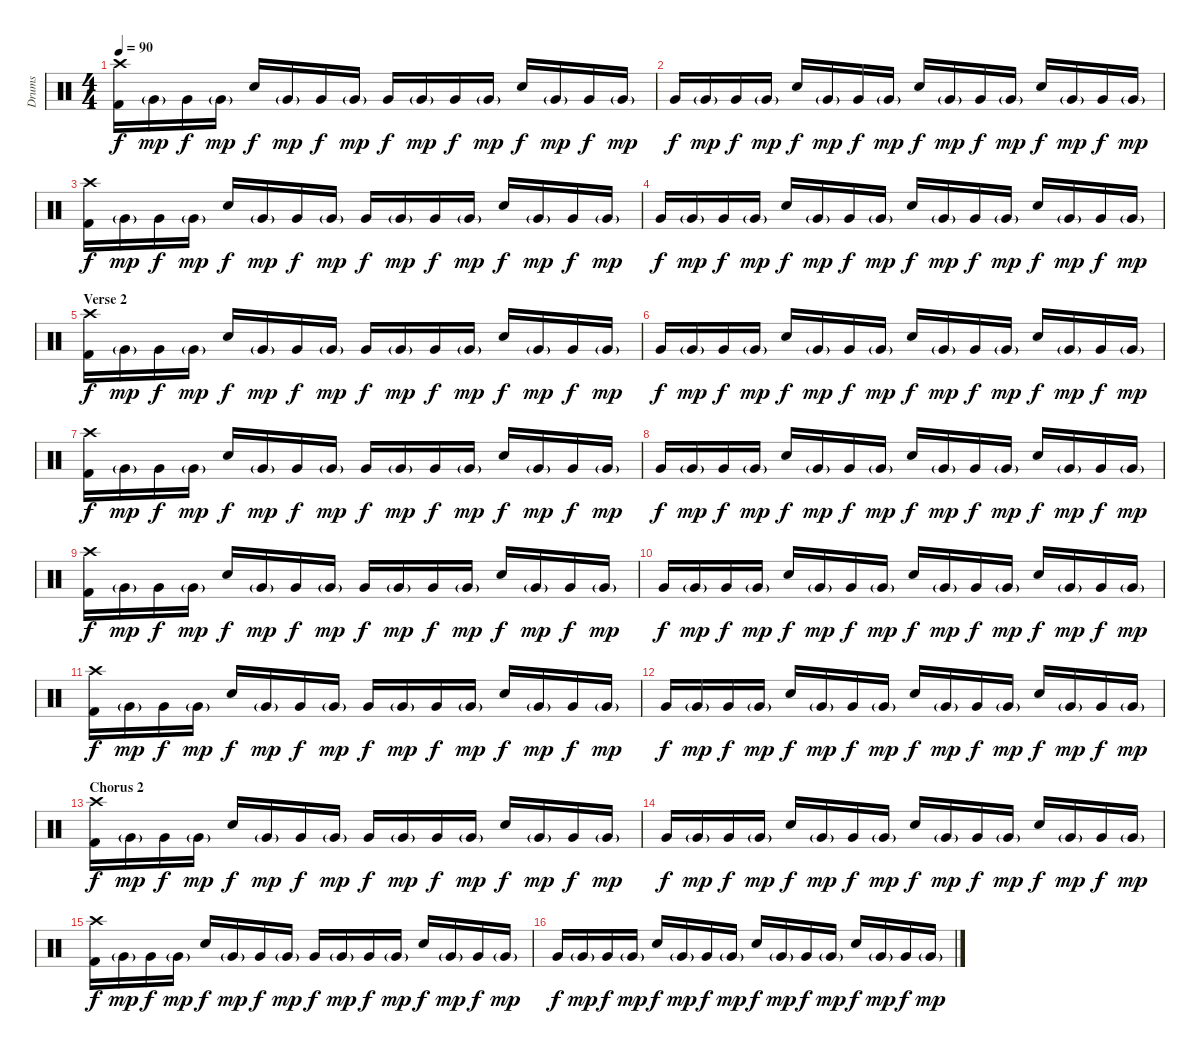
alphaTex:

\track ("Drums" "Drums") {instrument percussion}
\staff {score}
\articulation defaults
\ts (4 4)
\tempo 90
\clef neutral
\ks c
("Crash high (hit)" "Kick (hit) 2").16{dy f} "Very Low Tom (hit)"{g}.16{dy mp} "Very Low Tom (hit)".16{dy f} "Very Low Tom (hit)"{g}.16{dy mp} "Snare (hit) 2".16{dy f} "Very Low Tom (hit)"{g}.16{dy mp} "Very Low Tom (hit)".16{dy f} "Very Low Tom (hit)"{g}.16{dy mp} "Very Low Tom (hit)".16{dy f} "Very Low Tom (hit)"{g}.16{dy mp} "Very Low Tom (hit)".16{dy f} "Very Low Tom (hit)"{g}.16{dy mp} "Snare (hit) 2".16{dy f} "Very Low Tom (hit)"{g}.16{dy mp} "Very Low Tom (hit)".16{dy f} "Very Low Tom (hit)"{g}.16{dy mp} |
"Very Low Tom (hit)".16{dy f} "Very Low Tom (hit)"{g}.16{dy mp} "Very Low Tom (hit)".16{dy f} "Very Low Tom (hit)"{g}.16{dy mp} "Snare (hit) 2".16{dy f} "Very Low Tom (hit)"{g}.16{dy mp} "Very Low Tom (hit)".16{dy f} "Very Low Tom (hit)"{g}.16{dy mp} "Snare (hit) 2".16{dy f} "Very Low Tom (hit)"{g}.16{dy mp} "Very Low Tom (hit)".16{dy f} "Very Low Tom (hit)"{g}.16{dy mp} "Snare (hit) 2".16{dy f} "Very Low Tom (hit)"{g}.16{dy mp} "Very Low Tom (hit)".16{dy f} "Very Low Tom (hit)"{g}.16{dy mp} |
("Crash high (hit)" "Kick (hit) 2").16{dy f} "Very Low Tom (hit)"{g}.16{dy mp} "Very Low Tom (hit)".16{dy f} "Very Low Tom (hit)"{g}.16{dy mp} "Snare (hit) 2".16{dy f} "Very Low Tom (hit)"{g}.16{dy mp} "Very Low Tom (hit)".16{dy f} "Very Low Tom (hit)"{g}.16{dy mp} "Very Low Tom (hit)".16{dy f} "Very Low Tom (hit)"{g}.16{dy mp} "Very Low Tom (hit)".16{dy f} "Very Low Tom (hit)"{g}.16{dy mp} "Snare (hit) 2".16{dy f} "Very Low Tom (hit)"{g}.16{dy mp} "Very Low Tom (hit)".16{dy f} "Very Low Tom (hit)"{g}.16{dy mp} |
"Very Low Tom (hit)".16{dy f} "Very Low Tom (hit)"{g}.16{dy mp} "Very Low Tom (hit)".16{dy f} "Very Low Tom (hit)"{g}.16{dy mp} "Snare (hit) 2".16{dy f} "Very Low Tom (hit)"{g}.16{dy mp} "Very Low Tom (hit)".16{dy f} "Very Low Tom (hit)"{g}.16{dy mp} "Snare (hit) 2".16{dy f} "Very Low Tom (hit)"{g}.16{dy mp} "Very Low Tom (hit)".16{dy f} "Very Low Tom (hit)"{g}.16{dy mp} "Snare (hit) 2".16{dy f} "Very Low Tom (hit)"{g}.16{dy mp} "Very Low Tom (hit)".16{dy f} "Very Low Tom (hit)"{g}.16{dy mp} |
\section ("" "Verse 2")
("Crash high (hit)" "Kick (hit) 2").16{dy f} "Very Low Tom (hit)"{g}.16{dy mp} "Very Low Tom (hit)".16{dy f} "Very Low Tom (hit)"{g}.16{dy mp} "Snare (hit) 2".16{dy f} "Very Low Tom (hit)"{g}.16{dy mp} "Very Low Tom (hit)".16{dy f} "Very Low Tom (hit)"{g}.16{dy mp} "Very Low Tom (hit)".16{dy f} "Very Low Tom (hit)"{g}.16{dy mp} "Very Low Tom (hit)".16{dy f} "Very Low Tom (hit)"{g}.16{dy mp} "Snare (hit) 2".16{dy f} "Very Low Tom (hit)"{g}.16{dy mp} "Very Low Tom (hit)".16{dy f} "Very Low Tom (hit)"{g}.16{dy mp} |
"Very Low Tom (hit)".16{dy f} "Very Low Tom (hit)"{g}.16{dy mp} "Very Low Tom (hit)".16{dy f} "Very Low Tom (hit)"{g}.16{dy mp} "Snare (hit) 2".16{dy f} "Very Low Tom (hit)"{g}.16{dy mp} "Very Low Tom (hit)".16{dy f} "Very Low Tom (hit)"{g}.16{dy mp} "Snare (hit) 2".16{dy f} "Very Low Tom (hit)"{g}.16{dy mp} "Very Low Tom (hit)".16{dy f} "Very Low Tom (hit)"{g}.16{dy mp} "Snare (hit) 2".16{dy f} "Very Low Tom (hit)"{g}.16{dy mp} "Very Low Tom (hit)".16{dy f} "Very Low Tom (hit)"{g}.16{dy mp} |
("Crash high (hit)" "Kick (hit) 2").16{dy f} "Very Low Tom (hit)"{g}.16{dy mp} "Very Low Tom (hit)".16{dy f} "Very Low Tom (hit)"{g}.16{dy mp} "Snare (hit) 2".16{dy f} "Very Low Tom (hit)"{g}.16{dy mp} "Very Low Tom (hit)".16{dy f} "Very Low Tom (hit)"{g}.16{dy mp} "Very Low Tom (hit)".16{dy f} "Very Low Tom (hit)"{g}.16{dy mp} "Very Low Tom (hit)".16{dy f} "Very Low Tom (hit)"{g}.16{dy mp} "Snare (hit) 2".16{dy f} "Very Low Tom (hit)"{g}.16{dy mp} "Very Low Tom (hit)".16{dy f} "Very Low Tom (hit)"{g}.16{dy mp} |
"Very Low Tom (hit)".16{dy f} "Very Low Tom (hit)"{g}.16{dy mp} "Very Low Tom (hit)".16{dy f} "Very Low Tom (hit)"{g}.16{dy mp} "Snare (hit) 2".16{dy f} "Very Low Tom (hit)"{g}.16{dy mp} "Very Low Tom (hit)".16{dy f} "Very Low Tom (hit)"{g}.16{dy mp} "Snare (hit) 2".16{dy f} "Very Low Tom (hit)"{g}.16{dy mp} "Very Low Tom (hit)".16{dy f} "Very Low Tom (hit)"{g}.16{dy mp} "Snare (hit) 2".16{dy f} "Very Low Tom (hit)"{g}.16{dy mp} "Very Low Tom (hit)".16{dy f} "Very Low Tom (hit)"{g}.16{dy mp} |
("Crash high (hit)" "Kick (hit) 2").16{dy f} "Very Low Tom (hit)"{g}.16{dy mp} "Very Low Tom (hit)".16{dy f} "Very Low Tom (hit)"{g}.16{dy mp} "Snare (hit) 2".16{dy f} "Very Low Tom (hit)"{g}.16{dy mp} "Very Low Tom (hit)".16{dy f} "Very Low Tom (hit)"{g}.16{dy mp} "Very Low Tom (hit)".16{dy f} "Very Low Tom (hit)"{g}.16{dy mp} "Very Low Tom (hit)".16{dy f} "Very Low Tom (hit)"{g}.16{dy mp} "Snare (hit) 2".16{dy f} "Very Low Tom (hit)"{g}.16{dy mp} "Very Low Tom (hit)".16{dy f} "Very Low Tom (hit)"{g}.16{dy mp} |
"Very Low Tom (hit)".16{dy f} "Very Low Tom (hit)"{g}.16{dy mp} "Very Low Tom (hit)".16{dy f} "Very Low Tom (hit)"{g}.16{dy mp} "Snare (hit) 2".16{dy f} "Very Low Tom (hit)"{g}.16{dy mp} "Very Low Tom (hit)".16{dy f} "Very Low Tom (hit)"{g}.16{dy mp} "Snare (hit) 2".16{dy f} "Very Low Tom (hit)"{g}.16{dy mp} "Very Low Tom (hit)".16{dy f} "Very Low Tom (hit)"{g}.16{dy mp} "Snare (hit) 2".16{dy f} "Very Low Tom (hit)"{g}.16{dy mp} "Very Low Tom (hit)".16{dy f} "Very Low Tom (hit)"{g}.16{dy mp} |
("Crash high (hit)" "Kick (hit) 2").16{dy f} "Very Low Tom (hit)"{g}.16{dy mp} "Very Low Tom (hit)".16{dy f} "Very Low Tom (hit)"{g}.16{dy mp} "Snare (hit) 2".16{dy f} "Very Low Tom (hit)"{g}.16{dy mp} "Very Low Tom (hit)".16{dy f} "Very Low Tom (hit)"{g}.16{dy mp} "Very Low Tom (hit)".16{dy f} "Very Low Tom (hit)"{g}.16{dy mp} "Very Low Tom (hit)".16{dy f} "Very Low Tom (hit)"{g}.16{dy mp} "Snare (hit) 2".16{dy f} "Very Low Tom (hit)"{g}.16{dy mp} "Very Low Tom (hit)".16{dy f} "Very Low Tom (hit)"{g}.16{dy mp} |
"Very Low Tom (hit)".16{dy f} "Very Low Tom (hit)"{g}.16{dy mp} "Very Low Tom (hit)".16{dy f} "Very Low Tom (hit)"{g}.16{dy mp} "Snare (hit) 2".16{dy f} "Very Low Tom (hit)"{g}.16{dy mp} "Very Low Tom (hit)".16{dy f} "Very Low Tom (hit)"{g}.16{dy mp} "Snare (hit) 2".16{dy f} "Very Low Tom (hit)"{g}.16{dy mp} "Very Low Tom (hit)".16{dy f} "Very Low Tom (hit)"{g}.16{dy mp} "Snare (hit) 2".16{dy f} "Very Low Tom (hit)"{g}.16{dy mp} "Very Low Tom (hit)".16{dy f} "Very Low Tom (hit)"{g}.16{dy mp} |
\section ("" "Chorus 2")
("Crash high (hit)" "Kick (hit) 2").16{dy f} "Very Low Tom (hit)"{g}.16{dy mp} "Very Low Tom (hit)".16{dy f} "Very Low Tom (hit)"{g}.16{dy mp} "Snare (hit) 2".16{dy f} "Very Low Tom (hit)"{g}.16{dy mp} "Very Low Tom (hit)".16{dy f} "Very Low Tom (hit)"{g}.16{dy mp} "Very Low Tom (hit)".16{dy f} "Very Low Tom (hit)"{g}.16{dy mp} "Very Low Tom (hit)".16{dy f} "Very Low Tom (hit)"{g}.16{dy mp} "Snare (hit) 2".16{dy f} "Very Low Tom (hit)"{g}.16{dy mp} "Very Low Tom (hit)".16{dy f} "Very Low Tom (hit)"{g}.16{dy mp} |
"Very Low Tom (hit)".16{dy f} "Very Low Tom (hit)"{g}.16{dy mp} "Very Low Tom (hit)".16{dy f} "Very Low Tom (hit)"{g}.16{dy mp} "Snare (hit) 2".16{dy f} "Very Low Tom (hit)"{g}.16{dy mp} "Very Low Tom (hit)".16{dy f} "Very Low Tom (hit)"{g}.16{dy mp} "Snare (hit) 2".16{dy f} "Very Low Tom (hit)"{g}.16{dy mp} "Very Low Tom (hit)".16{dy f} "Very Low Tom (hit)"{g}.16{dy mp} "Snare (hit) 2".16{dy f} "Very Low Tom (hit)"{g}.16{dy mp} "Very Low Tom (hit)".16{dy f} "Very Low Tom (hit)"{g}.16{dy mp} |
("Crash high (hit)" "Kick (hit) 2").16{dy f} "Very Low Tom (hit)"{g}.16{dy mp} "Very Low Tom (hit)".16{dy f} "Very Low Tom (hit)"{g}.16{dy mp} "Snare (hit) 2".16{dy f} "Very Low Tom (hit)"{g}.16{dy mp} "Very Low Tom (hit)".16{dy f} "Very Low Tom (hit)"{g}.16{dy mp} "Very Low Tom (hit)".16{dy f} "Very Low Tom (hit)"{g}.16{dy mp} "Very Low Tom (hit)".16{dy f} "Very Low Tom (hit)"{g}.16{dy mp} "Snare (hit) 2".16{dy f} "Very Low Tom (hit)"{g}.16{dy mp} "Very Low Tom (hit)".16{dy f} "Very Low Tom (hit)"{g}.16{dy mp} |
"Very Low Tom (hit)".16{dy f} "Very Low Tom (hit)"{g}.16{dy mp} "Very Low Tom (hit)".16{dy f} "Very Low Tom (hit)"{g}.16{dy mp} "Snare (hit) 2".16{dy f} "Very Low Tom (hit)"{g}.16{dy mp} "Very Low Tom (hit)".16{dy f} "Very Low Tom (hit)"{g}.16{dy mp} "Snare (hit) 2".16{dy f} "Very Low Tom (hit)"{g}.16{dy mp} "Very Low Tom (hit)".16{dy f} "Very Low Tom (hit)"{g}.16{dy mp} "Snare (hit) 2".16{dy f} "Very Low Tom (hit)"{g}.16{dy mp} "Very Low Tom (hit)".16{dy f} "Very Low Tom (hit)"{g}.16{dy mp}
